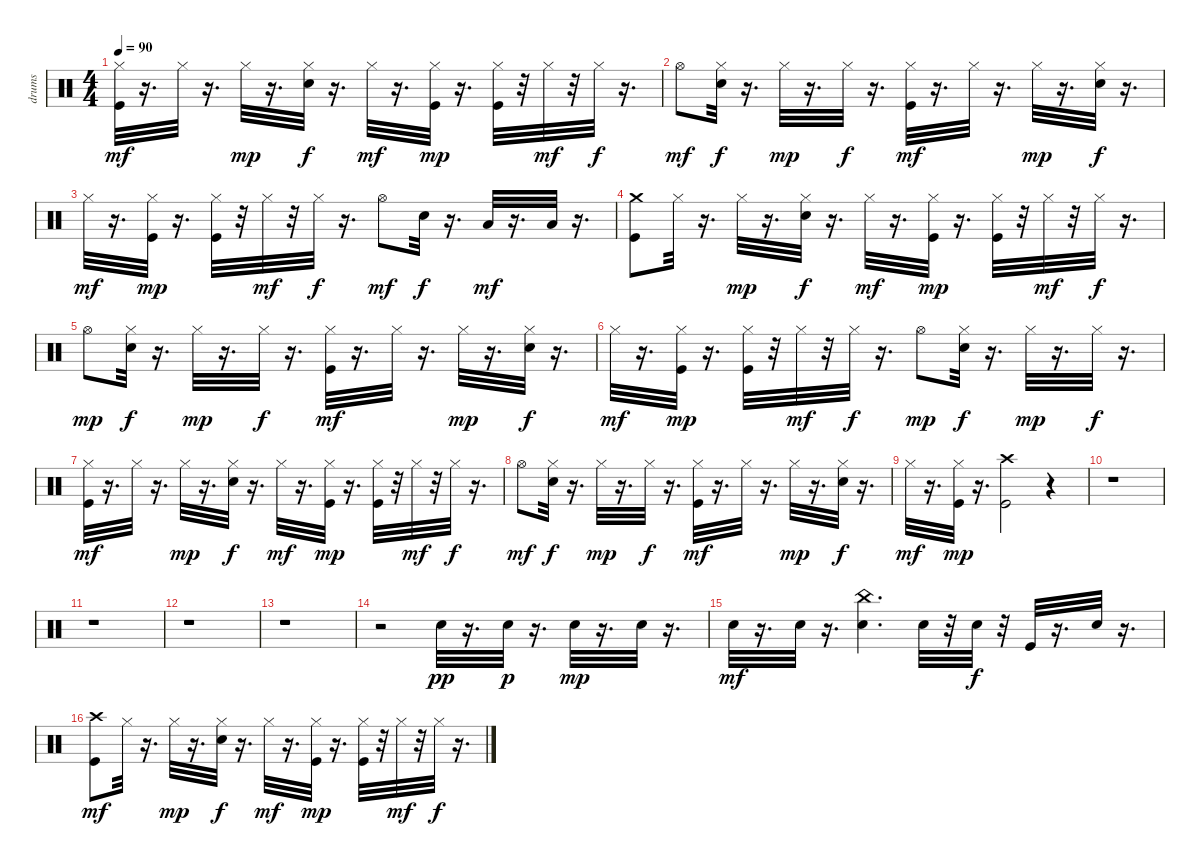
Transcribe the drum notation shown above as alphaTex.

\track ("drums" "drums") {instrument percussion}
\staff {score}
\articulation defaults
\ts (4 4)
\tempo 90
\clef neutral
\ks c
("Kick (hit)" "Hi-Hat (closed)").32{dy mf} r.16{d} "Hi-Hat (closed)".32 r.16{d} "Hi-Hat (closed)".32{dy mp} r.16{d} ("Snare (hit) 2" "Hi-Hat (closed)").32{dy f} r.16{d} "Hi-Hat (closed)".32{dy mf} r.16{d} ("Kick (hit)" "Hi-Hat (closed)").32{dy mp} r.16{d} ("Kick (hit)" "Hi-Hat (closed)").32 r.32 "Hi-Hat (closed)".32{dy mf} r.32 "Hi-Hat (closed)".32{dy f} r.16{d} |
"Hi-Hat (open)".8{dy mf} ("Snare (hit) 2" "Hi-Hat (closed)").32{dy f} r.16{d} "Hi-Hat (closed)".32{dy mp} r.16{d} "Hi-Hat (closed)".32{dy f} r.16{d} ("Kick (hit)" "Hi-Hat (closed)").32{dy mf} r.16{d} "Hi-Hat (closed)".32 r.16{d} "Hi-Hat (closed)".32{dy mp} r.16{d} ("Snare (hit) 2" "Hi-Hat (closed)").32{dy f} r.16{d} |
"Hi-Hat (closed)".32{dy mf} r.16{d} ("Kick (hit)" "Hi-Hat (closed)").32{dy mp} r.16{d} ("Kick (hit)" "Hi-Hat (closed)").32 r.32 "Hi-Hat (closed)".32{dy mf} r.32 "Hi-Hat (closed)".32{dy f} r.16{d} "Hi-Hat (open)".8{dy mf} "Snare (hit) 2".32{dy f} r.16{d} "Low Tom (hit)".32{dy mf} r.16{d} "Low Tom (hit)".32 r.16{d} |
("Kick (hit)" "Crash medium (hit)").8 "Hi-Hat (closed)".32 r.16{d} "Hi-Hat (closed)".32{dy mp} r.16{d} ("Snare (hit) 2" "Hi-Hat (closed)").32{dy f} r.16{d} "Hi-Hat (closed)".32{dy mf} r.16{d} ("Kick (hit)" "Hi-Hat (closed)").32{dy mp} r.16{d} ("Kick (hit)" "Hi-Hat (closed)").32 r.32 "Hi-Hat (closed)".32{dy mf} r.32 "Hi-Hat (closed)".32{dy f} r.16{d} |
"Hi-Hat (open)".8{dy mp} ("Snare (hit) 2" "Hi-Hat (closed)").32{dy f} r.16{d} "Hi-Hat (closed)".32{dy mp} r.16{d} "Hi-Hat (closed)".32{dy f} r.16{d} ("Kick (hit)" "Hi-Hat (closed)").32{dy mf} r.16{d} "Hi-Hat (closed)".32 r.16{d} "Hi-Hat (closed)".32{dy mp} r.16{d} ("Snare (hit) 2" "Hi-Hat (closed)").32{dy f} r.16{d} |
"Hi-Hat (closed)".32{dy mf} r.16{d} ("Kick (hit)" "Hi-Hat (closed)").32{dy mp} r.16{d} ("Kick (hit)" "Hi-Hat (closed)").32 r.32 "Hi-Hat (closed)".32{dy mf} r.32 "Hi-Hat (closed)".32{dy f} r.16{d} "Hi-Hat (open)".8{dy mp} ("Snare (hit) 2" "Hi-Hat (closed)").32{dy f} r.16{d} "Hi-Hat (closed)".32{dy mp} r.16{d} "Hi-Hat (closed)".32{dy f} r.16{d} |
("Kick (hit)" "Hi-Hat (closed)").32{dy mf} r.16{d} "Hi-Hat (closed)".32 r.16{d} "Hi-Hat (closed)".32{dy mp} r.16{d} ("Snare (hit) 2" "Hi-Hat (closed)").32{dy f} r.16{d} "Hi-Hat (closed)".32{dy mf} r.16{d} ("Kick (hit)" "Hi-Hat (closed)").32{dy mp} r.16{d} ("Kick (hit)" "Hi-Hat (closed)").32 r.32 "Hi-Hat (closed)".32{dy mf} r.32 "Hi-Hat (closed)".32{dy f} r.16{d} |
"Hi-Hat (open)".8{dy mf} ("Snare (hit) 2" "Hi-Hat (closed)").32{dy f} r.16{d} "Hi-Hat (closed)".32{dy mp} r.16{d} "Hi-Hat (closed)".32{dy f} r.16{d} ("Kick (hit)" "Hi-Hat (closed)").32{dy mf} r.16{d} "Hi-Hat (closed)".32 r.16{d} "Hi-Hat (closed)".32{dy mp} r.16{d} ("Snare (hit) 2" "Hi-Hat (closed)").32{dy f} r.16{d} |
"Hi-Hat (closed)".32{dy mf} r.16{d} ("Kick (hit)" "Hi-Hat (closed)").32{dy mp} r.16{d} ("Kick (hit)" "Crash high (hit)").2 r.4 |
r.1 |
r.1 |
r.1 |
r.1 |
r.2 "Snare (hit) 2".32{dy pp} r.16{d} "Snare (hit) 2".32{dy p} r.16{d} "Snare (hit) 2".32{dy mp} r.16{d} "Snare (hit) 2".32 r.16{d} |
"Snare (hit) 2".32{dy mf} r.16{d} "Snare (hit) 2".32 r.16{d} ("Snare (hit) 2" "China (hit)").4{d} "Snare (hit) 2".32 r.32 "Snare (hit) 2".32{dy f} r.32 "Kick (hit)".32 r.16{d} "Snare (hit) 2".32 r.16{d} |
("Kick (hit)" "Crash high (hit)").8{dy mf} "Hi-Hat (closed)".32 r.16{d} "Hi-Hat (closed)".32{dy mp} r.16{d} ("Snare (hit) 2" "Hi-Hat (closed)").32{dy f} r.16{d} "Hi-Hat (closed)".32{dy mf} r.16{d} ("Kick (hit)" "Hi-Hat (closed)").32{dy mp} r.16{d} ("Kick (hit)" "Hi-Hat (closed)").32 r.32 "Hi-Hat (closed)".32{dy mf} r.32 "Hi-Hat (closed)".32{dy f} r.16{d}
